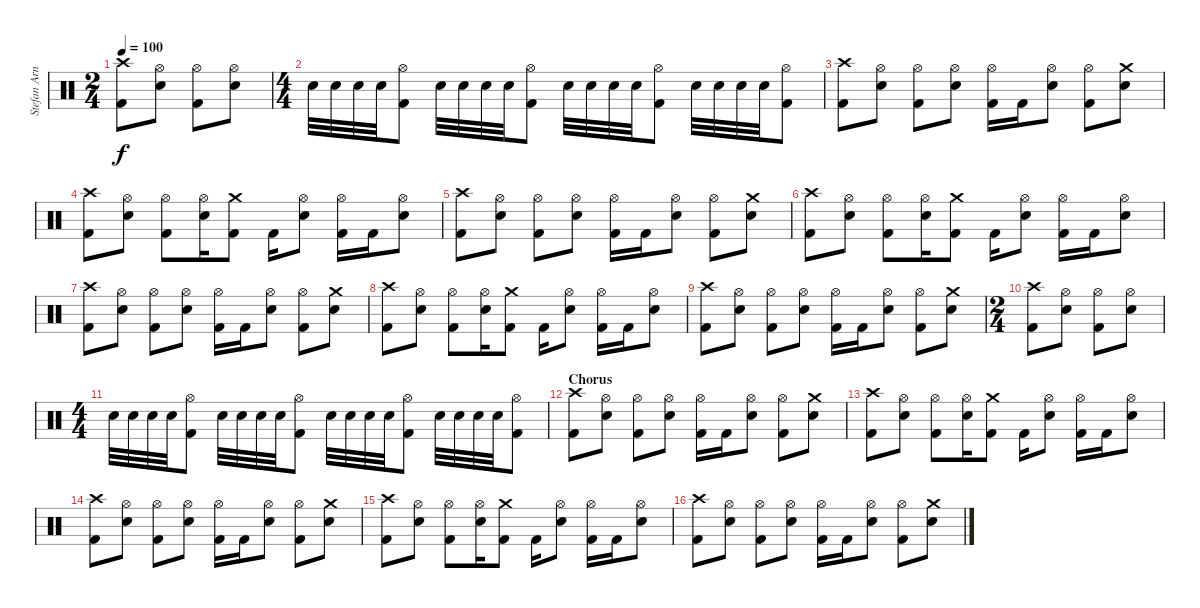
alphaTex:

\track ("Stefan Arnold" "Stefan Arn") {instrument percussion}
\staff {score}
\articulation defaults
\ts (2 4)
\tempo 100
\clef neutral
\ks c
("Crash high (hit)" "Kick (hit) 2").8{dy f} ("Hi-Hat (open)" "Electric Snare (hit)").8 ("Hi-Hat (open)" "Kick (hit) 2").8 ("Hi-Hat (open)" "Electric Snare (hit)").8 |
\ts (4 4)
"Electric Snare (hit)".32 "Electric Snare (hit)".32 "Electric Snare (hit)".32 "Electric Snare (hit)".32 ("Hi-Hat (open)" "Kick (hit) 2").8 "Electric Snare (hit)".32 "Electric Snare (hit)".32 "Electric Snare (hit)".32 "Electric Snare (hit)".32 ("Hi-Hat (open)" "Kick (hit) 2").8 "Electric Snare (hit)".32 "Electric Snare (hit)".32 "Electric Snare (hit)".32 "Electric Snare (hit)".32 ("Hi-Hat (open)" "Kick (hit) 2").8 "Electric Snare (hit)".32 "Electric Snare (hit)".32 "Electric Snare (hit)".32 "Electric Snare (hit)".32 ("Hi-Hat (open)" "Kick (hit) 2").8 |
("Crash high (hit)" "Kick (hit) 2").8 ("Hi-Hat (open)" "Electric Snare (hit)").8 ("Hi-Hat (open)" "Kick (hit) 2").8 ("Hi-Hat (open)" "Electric Snare (hit)").8 ("Hi-Hat (open)" "Kick (hit) 2").16 "Kick (hit) 2".16 ("Hi-Hat (open)" "Electric Snare (hit)").8 ("Hi-Hat (open)" "Kick (hit) 2").8 ("Crash medium (hit)" "Electric Snare (hit)").8 |
("Crash high (hit)" "Kick (hit) 2").8 ("Hi-Hat (open)" "Electric Snare (hit)").8 ("Hi-Hat (open)" "Kick (hit) 2").8 ("Hi-Hat (open)" "Electric Snare (hit)").16 ("Crash medium (hit)" "Kick (hit) 2").8 "Kick (hit) 2".16 ("Hi-Hat (open)" "Electric Snare (hit)").8 ("Hi-Hat (open)" "Kick (hit) 2").16 "Kick (hit) 2".16 ("Hi-Hat (open)" "Electric Snare (hit)").8 |
("Crash high (hit)" "Kick (hit) 2").8 ("Hi-Hat (open)" "Electric Snare (hit)").8 ("Hi-Hat (open)" "Kick (hit) 2").8 ("Hi-Hat (open)" "Electric Snare (hit)").8 ("Hi-Hat (open)" "Kick (hit) 2").16 "Kick (hit) 2".16 ("Hi-Hat (open)" "Electric Snare (hit)").8 ("Hi-Hat (open)" "Kick (hit) 2").8 ("Crash medium (hit)" "Electric Snare (hit)").8 |
("Crash high (hit)" "Kick (hit) 2").8 ("Hi-Hat (open)" "Electric Snare (hit)").8 ("Hi-Hat (open)" "Kick (hit) 2").8 ("Hi-Hat (open)" "Electric Snare (hit)").16 ("Crash medium (hit)" "Kick (hit) 2").8 "Kick (hit) 2".16 ("Hi-Hat (open)" "Electric Snare (hit)").8 ("Hi-Hat (open)" "Kick (hit) 2").16 "Kick (hit) 2".16 ("Hi-Hat (open)" "Electric Snare (hit)").8 |
("Crash high (hit)" "Kick (hit) 2").8 ("Hi-Hat (open)" "Electric Snare (hit)").8 ("Hi-Hat (open)" "Kick (hit) 2").8 ("Hi-Hat (open)" "Electric Snare (hit)").8 ("Hi-Hat (open)" "Kick (hit) 2").16 "Kick (hit) 2".16 ("Hi-Hat (open)" "Electric Snare (hit)").8 ("Hi-Hat (open)" "Kick (hit) 2").8 ("Crash medium (hit)" "Electric Snare (hit)").8 |
("Crash high (hit)" "Kick (hit) 2").8 ("Hi-Hat (open)" "Electric Snare (hit)").8 ("Hi-Hat (open)" "Kick (hit) 2").8 ("Hi-Hat (open)" "Electric Snare (hit)").16 ("Crash medium (hit)" "Kick (hit) 2").8 "Kick (hit) 2".16 ("Hi-Hat (open)" "Electric Snare (hit)").8 ("Hi-Hat (open)" "Kick (hit) 2").16 "Kick (hit) 2".16 ("Hi-Hat (open)" "Electric Snare (hit)").8 |
("Crash high (hit)" "Kick (hit) 2").8 ("Hi-Hat (open)" "Electric Snare (hit)").8 ("Hi-Hat (open)" "Kick (hit) 2").8 ("Hi-Hat (open)" "Electric Snare (hit)").8 ("Hi-Hat (open)" "Kick (hit) 2").16 "Kick (hit) 2".16 ("Hi-Hat (open)" "Electric Snare (hit)").8 ("Hi-Hat (open)" "Kick (hit) 2").8 ("Crash medium (hit)" "Electric Snare (hit)").8 |
\ts (2 4)
("Crash high (hit)" "Kick (hit) 2").8 ("Hi-Hat (open)" "Electric Snare (hit)").8 ("Hi-Hat (open)" "Kick (hit) 2").8 ("Hi-Hat (open)" "Electric Snare (hit)").8 |
\ts (4 4)
"Electric Snare (hit)".32 "Electric Snare (hit)".32 "Electric Snare (hit)".32 "Electric Snare (hit)".32 ("Hi-Hat (open)" "Kick (hit) 2").8 "Electric Snare (hit)".32 "Electric Snare (hit)".32 "Electric Snare (hit)".32 "Electric Snare (hit)".32 ("Hi-Hat (open)" "Kick (hit) 2").8 "Electric Snare (hit)".32 "Electric Snare (hit)".32 "Electric Snare (hit)".32 "Electric Snare (hit)".32 ("Hi-Hat (open)" "Kick (hit) 2").8 "Electric Snare (hit)".32 "Electric Snare (hit)".32 "Electric Snare (hit)".32 "Electric Snare (hit)".32 ("Hi-Hat (open)" "Kick (hit) 2").8 |
\section ("" "Chorus")
("Crash high (hit)" "Kick (hit) 2").8 ("Hi-Hat (open)" "Electric Snare (hit)").8 ("Hi-Hat (open)" "Kick (hit) 2").8 ("Hi-Hat (open)" "Electric Snare (hit)").8 ("Hi-Hat (open)" "Kick (hit) 2").16 "Kick (hit) 2".16 ("Hi-Hat (open)" "Electric Snare (hit)").8 ("Hi-Hat (open)" "Kick (hit) 2").8 ("Crash medium (hit)" "Electric Snare (hit)").8 |
("Crash high (hit)" "Kick (hit) 2").8 ("Hi-Hat (open)" "Electric Snare (hit)").8 ("Hi-Hat (open)" "Kick (hit) 2").8 ("Hi-Hat (open)" "Electric Snare (hit)").16 ("Crash medium (hit)" "Kick (hit) 2").8 "Kick (hit) 2".16 ("Hi-Hat (open)" "Electric Snare (hit)").8 ("Hi-Hat (open)" "Kick (hit) 2").16 "Kick (hit) 2".16 ("Hi-Hat (open)" "Electric Snare (hit)").8 |
("Crash high (hit)" "Kick (hit) 2").8 ("Hi-Hat (open)" "Electric Snare (hit)").8 ("Hi-Hat (open)" "Kick (hit) 2").8 ("Hi-Hat (open)" "Electric Snare (hit)").8 ("Hi-Hat (open)" "Kick (hit) 2").16 "Kick (hit) 2".16 ("Hi-Hat (open)" "Electric Snare (hit)").8 ("Hi-Hat (open)" "Kick (hit) 2").8 ("Crash medium (hit)" "Electric Snare (hit)").8 |
("Crash high (hit)" "Kick (hit) 2").8 ("Hi-Hat (open)" "Electric Snare (hit)").8 ("Hi-Hat (open)" "Kick (hit) 2").8 ("Hi-Hat (open)" "Electric Snare (hit)").16 ("Crash medium (hit)" "Kick (hit) 2").8 "Kick (hit) 2".16 ("Hi-Hat (open)" "Electric Snare (hit)").8 ("Hi-Hat (open)" "Kick (hit) 2").16 "Kick (hit) 2".16 ("Hi-Hat (open)" "Electric Snare (hit)").8 |
("Crash high (hit)" "Kick (hit) 2").8 ("Hi-Hat (open)" "Electric Snare (hit)").8 ("Hi-Hat (open)" "Kick (hit) 2").8 ("Hi-Hat (open)" "Electric Snare (hit)").8 ("Hi-Hat (open)" "Kick (hit) 2").16 "Kick (hit) 2".16 ("Hi-Hat (open)" "Electric Snare (hit)").8 ("Hi-Hat (open)" "Kick (hit) 2").8 ("Crash medium (hit)" "Electric Snare (hit)").8
